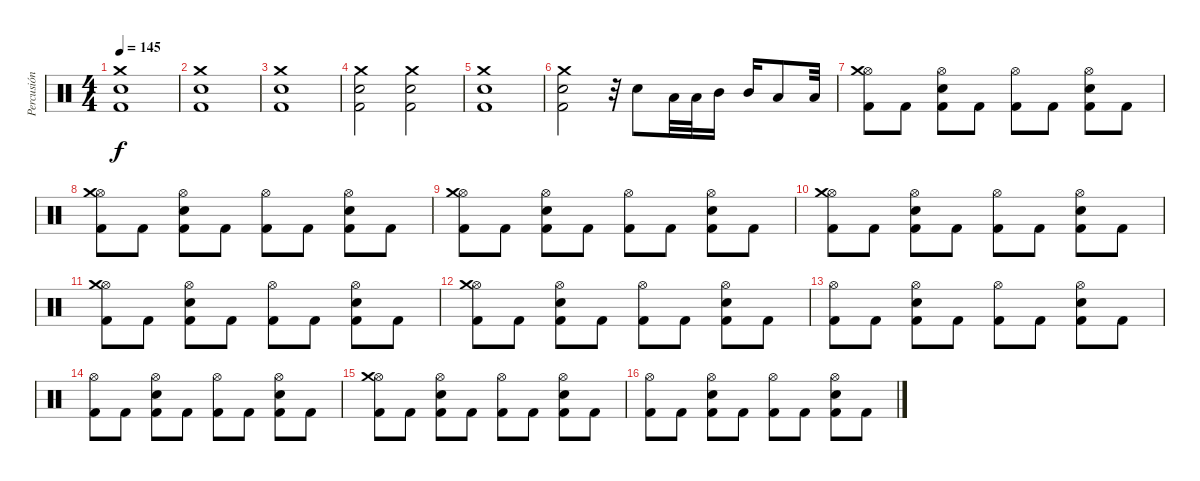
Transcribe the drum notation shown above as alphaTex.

\track ("Percusión" "Percusión") {instrument percussion}
\staff {score}
\articulation defaults
\ts (4 4)
\tempo 145
\clef neutral
\ks c
("Crash medium (hit)" "Electric Snare (hit)" "Kick (hit) 2").1{dy f} |
("Crash medium (hit)" "Electric Snare (hit)" "Kick (hit) 2").1 |
("Crash medium (hit)" "Electric Snare (hit)" "Kick (hit) 2").1 |
("Crash medium (hit)" "Electric Snare (hit)" "Kick (hit) 2").2 ("Crash medium (hit)" "Electric Snare (hit)" "Kick (hit) 2").2 |
("Crash medium (hit)" "Electric Snare (hit)" "Kick (hit) 2").1 |
("Crash medium (hit)" "Electric Snare (hit)" "Kick (hit) 2").2 r.32 "Electric Snare (hit)".8 "Low Tom (hit)".32 "Low Tom (hit)".32 "Mid Tom (hit)".16 "Mid Tom (hit)".16 "Low Tom (hit)".8 "Low Tom (hit)".32 |
("Hi-Hat (open)" "Kick (hit) 2" "Crash medium (hit)").8 "Kick (hit) 2".8 ("Hi-Hat (open)" "Electric Snare (hit)" "Kick (hit) 2").8 "Kick (hit) 2".8 ("Hi-Hat (open)" "Kick (hit) 2").8 "Kick (hit) 2".8 ("Hi-Hat (open)" "Electric Snare (hit)" "Kick (hit) 2").8 "Kick (hit) 2".8 |
("Hi-Hat (open)" "Kick (hit) 2" "Crash medium (hit)").8 "Kick (hit) 2".8 ("Hi-Hat (open)" "Electric Snare (hit)" "Kick (hit) 2").8 "Kick (hit) 2".8 ("Hi-Hat (open)" "Kick (hit) 2").8 "Kick (hit) 2".8 ("Hi-Hat (open)" "Electric Snare (hit)" "Kick (hit) 2").8 "Kick (hit) 2".8 |
("Hi-Hat (open)" "Kick (hit) 2" "Crash medium (hit)").8 "Kick (hit) 2".8 ("Hi-Hat (open)" "Electric Snare (hit)" "Kick (hit) 2").8 "Kick (hit) 2".8 ("Hi-Hat (open)" "Kick (hit) 2").8 "Kick (hit) 2".8 ("Hi-Hat (open)" "Electric Snare (hit)" "Kick (hit) 2").8 "Kick (hit) 2".8 |
("Hi-Hat (open)" "Kick (hit) 2" "Crash medium (hit)").8 "Kick (hit) 2".8 ("Hi-Hat (open)" "Electric Snare (hit)" "Kick (hit) 2").8 "Kick (hit) 2".8 ("Hi-Hat (open)" "Kick (hit) 2").8 "Kick (hit) 2".8 ("Hi-Hat (open)" "Electric Snare (hit)" "Kick (hit) 2").8 "Kick (hit) 2".8 |
("Hi-Hat (open)" "Kick (hit) 2" "Crash medium (hit)").8 "Kick (hit) 2".8 ("Hi-Hat (open)" "Electric Snare (hit)" "Kick (hit) 2").8 "Kick (hit) 2".8 ("Hi-Hat (open)" "Kick (hit) 2").8 "Kick (hit) 2".8 ("Hi-Hat (open)" "Electric Snare (hit)" "Kick (hit) 2").8 "Kick (hit) 2".8 |
("Hi-Hat (open)" "Kick (hit) 2" "Crash medium (hit)").8 "Kick (hit) 2".8 ("Hi-Hat (open)" "Electric Snare (hit)" "Kick (hit) 2").8 "Kick (hit) 2".8 ("Hi-Hat (open)" "Kick (hit) 2").8 "Kick (hit) 2".8 ("Hi-Hat (open)" "Electric Snare (hit)" "Kick (hit) 2").8 "Kick (hit) 2".8 |
("Hi-Hat (open)" "Kick (hit) 2").8 "Kick (hit) 2".8 ("Hi-Hat (open)" "Electric Snare (hit)" "Kick (hit) 2").8 "Kick (hit) 2".8 ("Hi-Hat (open)" "Kick (hit) 2").8 "Kick (hit) 2".8 ("Hi-Hat (open)" "Electric Snare (hit)" "Kick (hit) 2").8 "Kick (hit) 2".8 |
("Hi-Hat (open)" "Kick (hit) 2").8 "Kick (hit) 2".8 ("Hi-Hat (open)" "Electric Snare (hit)" "Kick (hit) 2").8 "Kick (hit) 2".8 ("Hi-Hat (open)" "Kick (hit) 2").8 "Kick (hit) 2".8 ("Hi-Hat (open)" "Electric Snare (hit)" "Kick (hit) 2").8 "Kick (hit) 2".8 |
("Hi-Hat (open)" "Kick (hit) 2" "Crash medium (hit)").8 "Kick (hit) 2".8 ("Hi-Hat (open)" "Electric Snare (hit)" "Kick (hit) 2").8 "Kick (hit) 2".8 ("Hi-Hat (open)" "Kick (hit) 2").8 "Kick (hit) 2".8 ("Hi-Hat (open)" "Electric Snare (hit)" "Kick (hit) 2").8 "Kick (hit) 2".8 |
("Hi-Hat (open)" "Kick (hit) 2").8 "Kick (hit) 2".8 ("Hi-Hat (open)" "Electric Snare (hit)" "Kick (hit) 2").8 "Kick (hit) 2".8 ("Hi-Hat (open)" "Kick (hit) 2").8 "Kick (hit) 2".8 ("Hi-Hat (open)" "Electric Snare (hit)" "Kick (hit) 2").8 "Kick (hit) 2".8
